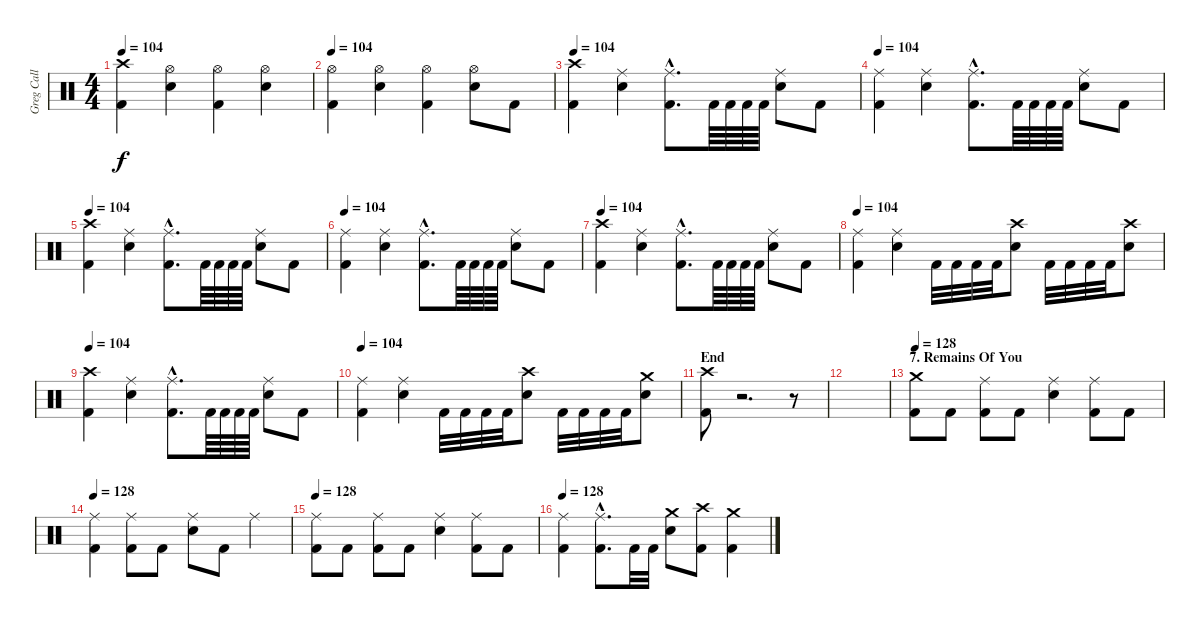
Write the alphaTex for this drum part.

\track ("Greg Call (Drums)" "Greg Call ") {instrument percussion}
\staff {score}
\articulation defaults
\ts (4 4)
\tempo 104
\clef neutral
\ks c
("Crash high (hit)" "Kick (hit) 2").4{dy f} ("Hi-Hat (open)" "Snare (hit) 2").4 ("Hi-Hat (open)" "Kick (hit) 2").4 ("Hi-Hat (open)" "Snare (hit) 2").4 |
\tempo 104
("Hi-Hat (open)" "Kick (hit) 2").4 ("Hi-Hat (open)" "Snare (hit) 2").4 ("Hi-Hat (open)" "Kick (hit) 2").4 ("Hi-Hat (open)" "Snare (hit) 2").8 "Kick (hit) 2".8 |
\tempo 104
("Crash high (hit)" "Kick (hit) 2").4 ("Ride (middle)" "Snare (hit) 2").4 ("Ride (middle)"{hac} "Kick (hit) 2"{hac}).8{d} "Kick (hit) 2".64 "Kick (hit) 2".64 "Kick (hit) 2".64 "Kick (hit) 2".64 ("Ride (middle)" "Snare (hit) 2").8 "Kick (hit) 2".8 |
\tempo 104
("Ride (middle)" "Kick (hit) 2").4 ("Ride (middle)" "Snare (hit) 2").4 ("Ride (middle)"{hac} "Kick (hit) 2"{hac}).8{d} "Kick (hit) 2".64 "Kick (hit) 2".64 "Kick (hit) 2".64 "Kick (hit) 2".64 ("Ride (middle)" "Snare (hit) 2").8 "Kick (hit) 2".8 |
\tempo 104
("Crash high (hit)" "Kick (hit) 2").4 ("Ride (middle)" "Snare (hit) 2").4 ("Ride (middle)"{hac} "Kick (hit) 2"{hac}).8{d} "Kick (hit) 2".64 "Kick (hit) 2".64 "Kick (hit) 2".64 "Kick (hit) 2".64 ("Ride (middle)" "Snare (hit) 2").8 "Kick (hit) 2".8 |
\tempo 104
("Ride (middle)" "Kick (hit) 2").4 ("Ride (middle)" "Snare (hit) 2").4 ("Ride (middle)"{hac} "Kick (hit) 2"{hac}).8{d} "Kick (hit) 2".64 "Kick (hit) 2".64 "Kick (hit) 2".64 "Kick (hit) 2".64 ("Ride (middle)" "Snare (hit) 2").8 "Kick (hit) 2".8 |
\tempo 104
("Crash high (hit)" "Kick (hit) 2").4 ("Ride (middle)" "Snare (hit) 2").4 ("Ride (middle)"{hac} "Kick (hit) 2"{hac}).8{d} "Kick (hit) 2".64 "Kick (hit) 2".64 "Kick (hit) 2".64 "Kick (hit) 2".64 ("Ride (middle)" "Snare (hit) 2").8 "Kick (hit) 2".8 |
\tempo 104
("Ride (middle)" "Kick (hit) 2").4 ("Ride (middle)" "Snare (hit) 2").4 "Kick (hit) 2".32 "Kick (hit) 2".32 "Kick (hit) 2".32 "Kick (hit) 2".32 ("Crash high (hit)" "Snare (hit) 2").8 "Kick (hit) 2".32 "Kick (hit) 2".32 "Kick (hit) 2".32 "Kick (hit) 2".32 ("Crash high (hit)" "Snare (hit) 2").8 |
\tempo 104
("Crash high (hit)" "Kick (hit) 2").4 ("Ride (middle)" "Snare (hit) 2").4 ("Ride (middle)"{hac} "Kick (hit) 2"{hac}).8{d} "Kick (hit) 2".64 "Kick (hit) 2".64 "Kick (hit) 2".64 "Kick (hit) 2".64 ("Ride (middle)" "Snare (hit) 2").8 "Kick (hit) 2".8 |
\tempo 104
("Ride (middle)" "Kick (hit) 2").4 ("Ride (middle)" "Snare (hit) 2").4 "Kick (hit) 2".32 "Kick (hit) 2".32 "Kick (hit) 2".32 "Kick (hit) 2".32 ("Crash high (hit)" "Snare (hit) 2").8 "Kick (hit) 2".32 "Kick (hit) 2".32 "Kick (hit) 2".32 "Kick (hit) 2".32 ("Crash medium (hit)" "Snare (hit) 2").8 |
\section ("" "End")
("Crash high (hit)" "Kick (hit) 2").8 r.2{d volume 0} r.8 |
|
\section ("" "7. Remains Of You")
\tempo 128
("Crash medium (hit)" "Kick (hit) 2").8 "Kick (hit) 2".8 ("Ride (middle)" "Kick (hit) 2").8 "Kick (hit) 2".8 ("Ride (middle)" "Snare (hit) 2").4 ("Ride (middle)" "Kick (hit) 2").8 "Kick (hit) 2".8 |
\tempo 128
("Ride (middle)" "Kick (hit) 2").4 ("Ride (middle)" "Kick (hit) 2").8 "Kick (hit) 2".8 ("Ride (middle)" "Snare (hit) 2").8 "Kick (hit) 2".8 "Ride (middle)".4 |
\tempo 128
("Ride (middle)" "Kick (hit) 2").8 "Kick (hit) 2".8 ("Ride (middle)" "Kick (hit) 2").8 "Kick (hit) 2".8 ("Ride (middle)" "Snare (hit) 2").4 ("Ride (middle)" "Kick (hit) 2").8 "Kick (hit) 2".8 |
\tempo 128
("Ride (middle)" "Kick (hit) 2").4 ("Ride (middle)"{hac} "Kick (hit) 2"{hac}).8{d} "Kick (hit) 2".32 "Kick (hit) 2".32 ("Crash medium (hit)" "Snare (hit) 2").8 ("Crash high (hit)" "Kick (hit) 2").8 ("Crash medium (hit)" "Kick (hit) 2").4
